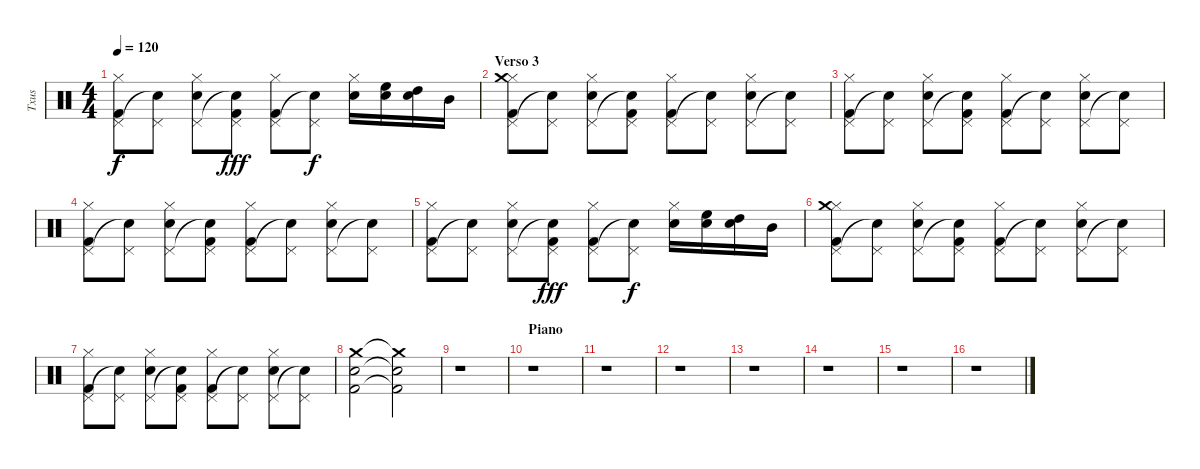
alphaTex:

\track ("Txus" "Txus") {instrument percussion}
\staff {score}
\articulation defaults
\ts (4 4)
\tempo 120
\clef neutral
\ks c
("Hi-Hat (closed)" "Pedal Hi-Hat (hit)" "Kick (hit) 2").8{dy f} ("Pedal Hi-Hat (hit)" "Snare (hit)"{t}).8 ("Hi-Hat (closed)" "Pedal Hi-Hat (hit)" "Snare (hit) 2").8 ("Pedal Hi-Hat (hit)" "Snare (hit)"{t} "Kick (hit) 2").8{dy fff} ("Hi-Hat (closed)" "Pedal Hi-Hat (hit)" "Kick (hit) 2").8 ("Pedal Hi-Hat (hit)" "Snare (hit)"{t}).8{dy f} ("Hi-Hat (closed)" "Electric Snare (hit)").16 ("High Floor Tom (hit)" "Snare (hit) 2").16 ("High Tom (hit)" "Snare (hit) 2").16 "Mid Tom (hit)".16 |
\section ("" "Verso 3")
("Hi-Hat (closed)" "Pedal Hi-Hat (hit)" "Crash medium (hit)" "Kick (hit) 2").8 ("Pedal Hi-Hat (hit)" "Snare (hit)"{t}).8 ("Hi-Hat (closed)" "Pedal Hi-Hat (hit)" "Snare (hit) 2").8 ("Pedal Hi-Hat (hit)" "Snare (hit)"{t} "Kick (hit) 2").8 ("Hi-Hat (closed)" "Pedal Hi-Hat (hit)" "Kick (hit) 2").8 ("Pedal Hi-Hat (hit)" "Snare (hit)"{t}).8 ("Hi-Hat (closed)" "Pedal Hi-Hat (hit)" "Snare (hit) 2").8 ("Pedal Hi-Hat (hit)" "Snare (hit) 2"{t}).8 |
("Hi-Hat (closed)" "Pedal Hi-Hat (hit)" "Kick (hit) 2").8 ("Pedal Hi-Hat (hit)" "Snare (hit)"{t}).8 ("Hi-Hat (closed)" "Pedal Hi-Hat (hit)" "Snare (hit) 2").8 ("Pedal Hi-Hat (hit)" "Snare (hit)"{t} "Kick (hit) 2").8 ("Hi-Hat (closed)" "Pedal Hi-Hat (hit)" "Kick (hit) 2").8 ("Pedal Hi-Hat (hit)" "Snare (hit)"{t}).8 ("Hi-Hat (closed)" "Pedal Hi-Hat (hit)" "Snare (hit) 2").8 ("Pedal Hi-Hat (hit)" "Snare (hit) 2"{t}).8 |
("Hi-Hat (closed)" "Pedal Hi-Hat (hit)" "Kick (hit) 2").8 ("Pedal Hi-Hat (hit)" "Snare (hit)"{t}).8 ("Hi-Hat (closed)" "Pedal Hi-Hat (hit)" "Snare (hit) 2").8 ("Pedal Hi-Hat (hit)" "Snare (hit)"{t} "Kick (hit) 2").8 ("Hi-Hat (closed)" "Pedal Hi-Hat (hit)" "Kick (hit) 2").8 ("Pedal Hi-Hat (hit)" "Snare (hit)"{t}).8 ("Hi-Hat (closed)" "Pedal Hi-Hat (hit)" "Snare (hit) 2").8 ("Pedal Hi-Hat (hit)" "Snare (hit) 2"{t}).8 |
("Hi-Hat (closed)" "Pedal Hi-Hat (hit)" "Kick (hit) 2").8 ("Pedal Hi-Hat (hit)" "Snare (hit)"{t}).8 ("Hi-Hat (closed)" "Pedal Hi-Hat (hit)" "Snare (hit) 2").8 ("Pedal Hi-Hat (hit)" "Snare (hit)"{t} "Kick (hit) 2").8{dy fff} ("Hi-Hat (closed)" "Pedal Hi-Hat (hit)" "Kick (hit) 2").8 ("Pedal Hi-Hat (hit)" "Snare (hit)"{t}).8{dy f} ("Hi-Hat (closed)" "Electric Snare (hit)").16 ("High Floor Tom (hit)" "Snare (hit) 2").16 ("High Tom (hit)" "Snare (hit) 2").16 "Mid Tom (hit)".16 |
("Hi-Hat (closed)" "Pedal Hi-Hat (hit)" "Crash medium (hit)" "Kick (hit) 2").8 ("Pedal Hi-Hat (hit)" "Snare (hit)"{t}).8 ("Hi-Hat (closed)" "Pedal Hi-Hat (hit)" "Snare (hit) 2").8 ("Pedal Hi-Hat (hit)" "Snare (hit)"{t} "Kick (hit) 2").8 ("Hi-Hat (closed)" "Pedal Hi-Hat (hit)" "Kick (hit) 2").8 ("Pedal Hi-Hat (hit)" "Snare (hit)"{t}).8 ("Hi-Hat (closed)" "Pedal Hi-Hat (hit)" "Snare (hit) 2").8 ("Pedal Hi-Hat (hit)" "Snare (hit) 2"{t}).8 |
("Hi-Hat (closed)" "Pedal Hi-Hat (hit)" "Kick (hit) 2").8 ("Pedal Hi-Hat (hit)" "Snare (hit)"{t}).8 ("Hi-Hat (closed)" "Pedal Hi-Hat (hit)" "Snare (hit) 2").8 ("Pedal Hi-Hat (hit)" "Snare (hit)"{t} "Kick (hit) 2").8 ("Hi-Hat (closed)" "Pedal Hi-Hat (hit)" "Kick (hit) 2").8 ("Pedal Hi-Hat (hit)" "Snare (hit)"{t}).8 ("Hi-Hat (closed)" "Pedal Hi-Hat (hit)" "Snare (hit) 2").8 ("Pedal Hi-Hat (hit)" "Snare (hit) 2"{t}).8 |
("Crash medium (hit)" "Snare (hit) 2" "Kick (hit) 2").2 ("Crash medium (hit)"{t} "Snare (hit) 2"{t} "Kick (hit) 2"{t}).2 |
r.1 |
\section ("" "Piano")
r.1 |
r.1 |
r.1 |
r.1 |
r.1 |
r.1 |
r.1
